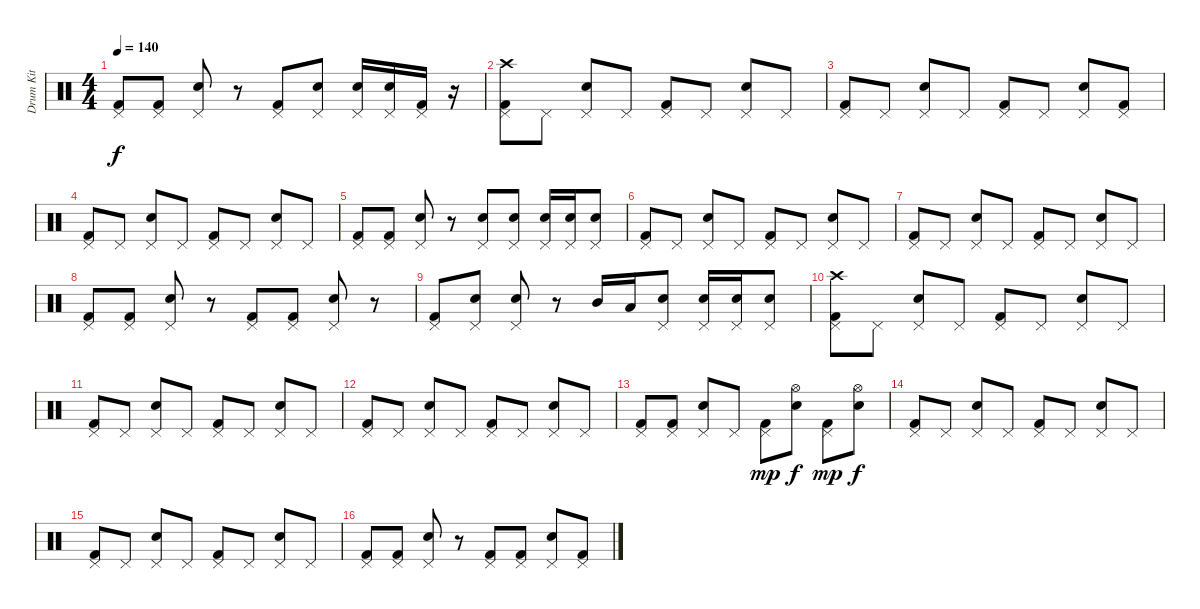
\track ("Drum Kit" "Drum Kit") {instrument percussion}
\staff {score}
\articulation defaults
\ts (4 4)
\tempo 140
\clef neutral
\ks c
("Pedal Hi-Hat (hit)" "Kick (hit) 2").8{dy f} ("Pedal Hi-Hat (hit)" "Kick (hit) 2").8 ("Pedal Hi-Hat (hit)" "Electric Snare (hit)").8 r.8 ("Pedal Hi-Hat (hit)" "Kick (hit) 2").8 ("Pedal Hi-Hat (hit)" "Electric Snare (hit)").8 ("Pedal Hi-Hat (hit)" "Electric Snare (hit)").16 ("Pedal Hi-Hat (hit)" "Electric Snare (hit)").16 ("Pedal Hi-Hat (hit)" "Kick (hit) 2").16 r.16 |
("Crash high (hit)" "Pedal Hi-Hat (hit)" "Kick (hit) 2").8 "Pedal Hi-Hat (hit)".8 ("Pedal Hi-Hat (hit)" "Electric Snare (hit)").8 "Pedal Hi-Hat (hit)".8 ("Pedal Hi-Hat (hit)" "Kick (hit) 2").8 "Pedal Hi-Hat (hit)".8 ("Pedal Hi-Hat (hit)" "Electric Snare (hit)").8 "Pedal Hi-Hat (hit)".8 |
("Pedal Hi-Hat (hit)" "Kick (hit) 2").8 "Pedal Hi-Hat (hit)".8 ("Pedal Hi-Hat (hit)" "Electric Snare (hit)").8 "Pedal Hi-Hat (hit)".8 ("Pedal Hi-Hat (hit)" "Kick (hit) 2").8 "Pedal Hi-Hat (hit)".8 ("Pedal Hi-Hat (hit)" "Electric Snare (hit)").8 ("Pedal Hi-Hat (hit)" "Kick (hit) 2").8 |
("Pedal Hi-Hat (hit)" "Kick (hit) 2").8 "Pedal Hi-Hat (hit)".8 ("Pedal Hi-Hat (hit)" "Electric Snare (hit)").8 "Pedal Hi-Hat (hit)".8 ("Pedal Hi-Hat (hit)" "Kick (hit) 2").8 "Pedal Hi-Hat (hit)".8 ("Pedal Hi-Hat (hit)" "Electric Snare (hit)").8 "Pedal Hi-Hat (hit)".8 |
("Pedal Hi-Hat (hit)" "Kick (hit) 2").8 ("Pedal Hi-Hat (hit)" "Kick (hit) 2").8 ("Pedal Hi-Hat (hit)" "Electric Snare (hit)").8 r.8 ("Pedal Hi-Hat (hit)" "Electric Snare (hit)").8 ("Pedal Hi-Hat (hit)" "Electric Snare (hit)").8 ("Pedal Hi-Hat (hit)" "Electric Snare (hit)").16 ("Pedal Hi-Hat (hit)" "Electric Snare (hit)").16 ("Pedal Hi-Hat (hit)" "Electric Snare (hit)").8 |
("Pedal Hi-Hat (hit)" "Kick (hit) 2").8 "Pedal Hi-Hat (hit)".8 ("Pedal Hi-Hat (hit)" "Electric Snare (hit)").8 "Pedal Hi-Hat (hit)".8 ("Pedal Hi-Hat (hit)" "Kick (hit) 2").8 "Pedal Hi-Hat (hit)".8 ("Pedal Hi-Hat (hit)" "Electric Snare (hit)").8 "Pedal Hi-Hat (hit)".8 |
("Pedal Hi-Hat (hit)" "Kick (hit) 2").8 "Pedal Hi-Hat (hit)".8 ("Pedal Hi-Hat (hit)" "Electric Snare (hit)").8 "Pedal Hi-Hat (hit)".8 ("Pedal Hi-Hat (hit)" "Kick (hit) 2").8 "Pedal Hi-Hat (hit)".8 ("Pedal Hi-Hat (hit)" "Electric Snare (hit)").8 "Pedal Hi-Hat (hit)".8 |
("Pedal Hi-Hat (hit)" "Kick (hit) 2").8 ("Pedal Hi-Hat (hit)" "Kick (hit) 2").8 ("Pedal Hi-Hat (hit)" "Electric Snare (hit)").8 r.8 ("Pedal Hi-Hat (hit)" "Kick (hit) 2").8 ("Pedal Hi-Hat (hit)" "Kick (hit) 2").8 ("Pedal Hi-Hat (hit)" "Electric Snare (hit)").8 r.8 |
("Pedal Hi-Hat (hit)" "Kick (hit) 2").8 ("Pedal Hi-Hat (hit)" "Electric Snare (hit)").8 ("Pedal Hi-Hat (hit)" "Electric Snare (hit)").8 r.8 "Mid Tom (hit)".16 "Low Tom (hit)".16 ("Pedal Hi-Hat (hit)" "Electric Snare (hit)").8 ("Pedal Hi-Hat (hit)" "Electric Snare (hit)").16 ("Pedal Hi-Hat (hit)" "Electric Snare (hit)").16 ("Pedal Hi-Hat (hit)" "Electric Snare (hit)").8 |
("Crash high (hit)" "Pedal Hi-Hat (hit)" "Kick (hit) 2").8 "Pedal Hi-Hat (hit)".8 ("Pedal Hi-Hat (hit)" "Electric Snare (hit)").8 "Pedal Hi-Hat (hit)".8 ("Pedal Hi-Hat (hit)" "Kick (hit) 2").8 "Pedal Hi-Hat (hit)".8 ("Pedal Hi-Hat (hit)" "Electric Snare (hit)").8 "Pedal Hi-Hat (hit)".8 |
("Pedal Hi-Hat (hit)" "Kick (hit) 2").8 "Pedal Hi-Hat (hit)".8 ("Pedal Hi-Hat (hit)" "Electric Snare (hit)").8 "Pedal Hi-Hat (hit)".8 ("Pedal Hi-Hat (hit)" "Kick (hit) 2").8 "Pedal Hi-Hat (hit)".8 ("Pedal Hi-Hat (hit)" "Electric Snare (hit)").8 "Pedal Hi-Hat (hit)".8 |
("Pedal Hi-Hat (hit)" "Kick (hit) 2").8 "Pedal Hi-Hat (hit)".8 ("Pedal Hi-Hat (hit)" "Electric Snare (hit)").8 "Pedal Hi-Hat (hit)".8 ("Pedal Hi-Hat (hit)" "Kick (hit) 2").8 "Pedal Hi-Hat (hit)".8 ("Pedal Hi-Hat (hit)" "Electric Snare (hit)").8 "Pedal Hi-Hat (hit)".8 |
("Pedal Hi-Hat (hit)" "Kick (hit) 2").8 ("Pedal Hi-Hat (hit)" "Kick (hit) 2").8 ("Pedal Hi-Hat (hit)" "Electric Snare (hit)").8 "Pedal Hi-Hat (hit)".8 ("Pedal Hi-Hat (hit)" "Kick (hit) 2").8{dy mp} ("Hi-Hat (open)" "Electric Snare (hit)").8{dy f} ("Pedal Hi-Hat (hit)" "Kick (hit) 2").8{dy mp} ("Hi-Hat (open)" "Electric Snare (hit)").8{dy f} |
("Pedal Hi-Hat (hit)" "Kick (hit) 2").8 "Pedal Hi-Hat (hit)".8 ("Pedal Hi-Hat (hit)" "Electric Snare (hit)").8 "Pedal Hi-Hat (hit)".8 ("Pedal Hi-Hat (hit)" "Kick (hit) 2").8 "Pedal Hi-Hat (hit)".8 ("Pedal Hi-Hat (hit)" "Electric Snare (hit)").8 "Pedal Hi-Hat (hit)".8 |
("Pedal Hi-Hat (hit)" "Kick (hit) 2").8 "Pedal Hi-Hat (hit)".8 ("Pedal Hi-Hat (hit)" "Electric Snare (hit)").8 "Pedal Hi-Hat (hit)".8 ("Pedal Hi-Hat (hit)" "Kick (hit) 2").8 "Pedal Hi-Hat (hit)".8 ("Pedal Hi-Hat (hit)" "Electric Snare (hit)").8 "Pedal Hi-Hat (hit)".8 |
("Pedal Hi-Hat (hit)" "Kick (hit) 2").8 ("Pedal Hi-Hat (hit)" "Kick (hit) 2").8 ("Pedal Hi-Hat (hit)" "Electric Snare (hit)").8 r.8 ("Pedal Hi-Hat (hit)" "Kick (hit) 2").8 ("Pedal Hi-Hat (hit)" "Kick (hit) 2").8 ("Pedal Hi-Hat (hit)" "Electric Snare (hit)").8 ("Pedal Hi-Hat (hit)" "Kick (hit) 2").8
